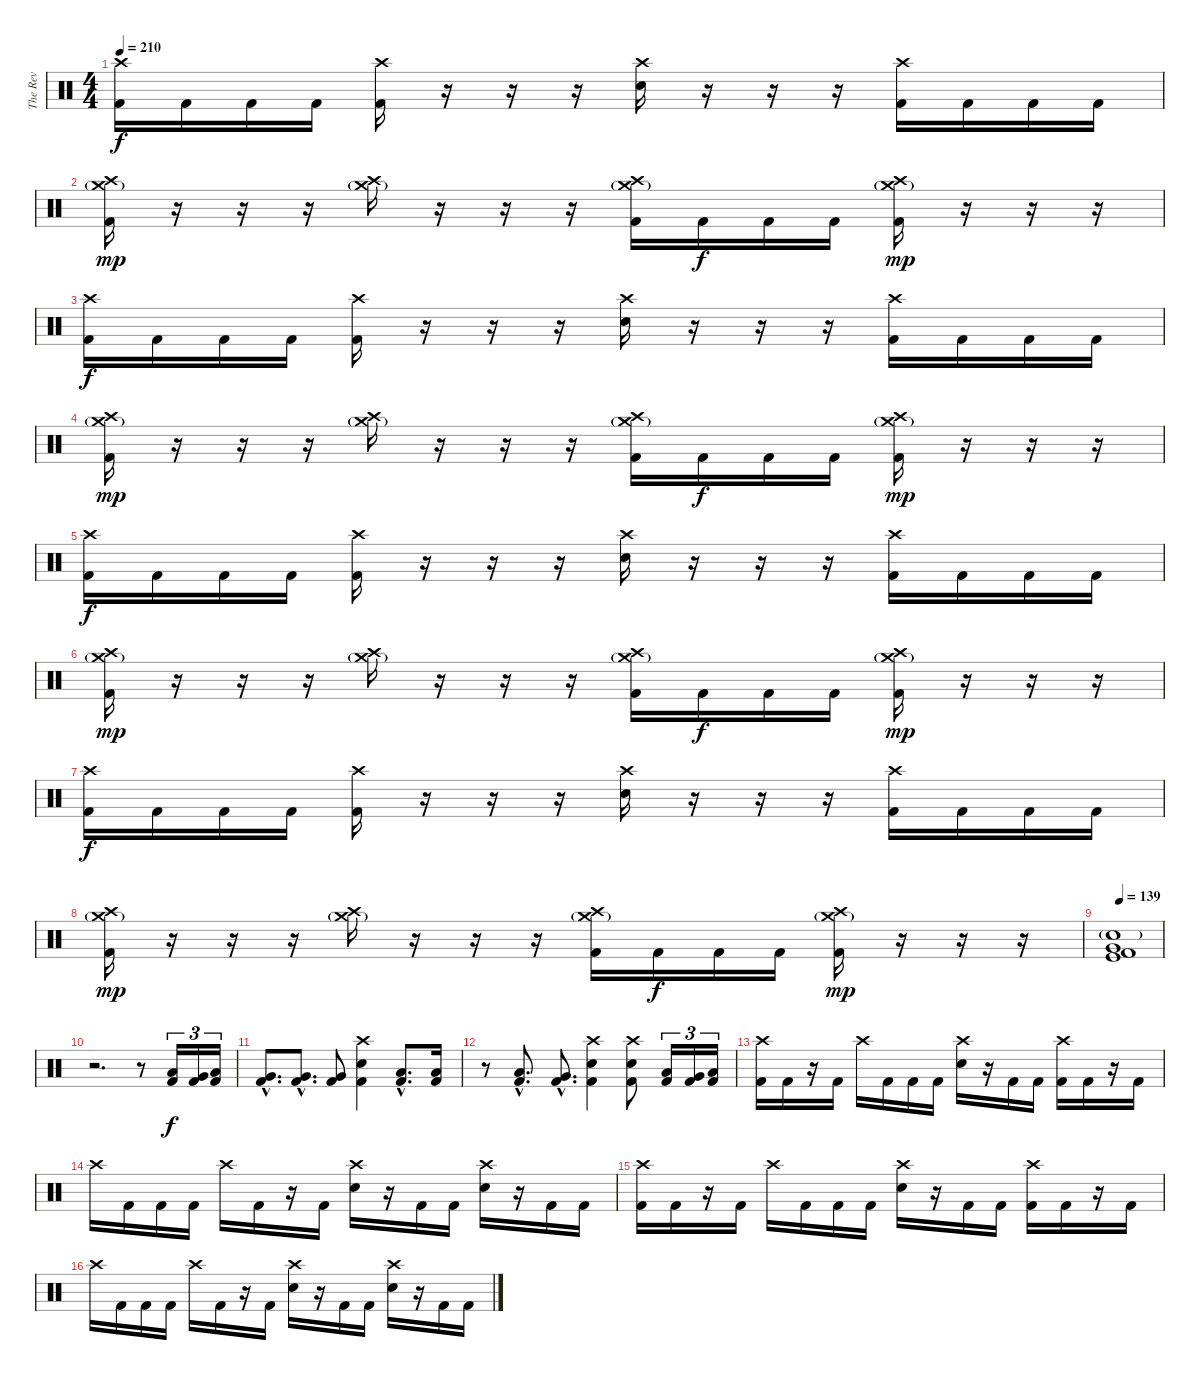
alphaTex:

\track ("The Rev" "The Rev") {instrument percussion}
\staff {score}
\articulation defaults
\ts (4 4)
\tempo 210
\clef neutral
\ks c
("Crash high (hit)" "Kick (hit) 2").16{dy f} "Kick (hit) 2".16 "Kick (hit) 2".16 "Kick (hit) 2".16 ("Crash high (hit)" "Kick (hit) 2").16 r.16 r.16 r.16 ("Crash high (hit)" "Electric Snare (hit)").16 r.16 r.16 r.16 ("Crash high (hit)" "Kick (hit) 2").16 "Kick (hit) 2".16 "Kick (hit) 2".16 "Kick (hit) 2".16 |
("Crash high (hit)" "Crash medium (hit)"{g} "Kick (hit) 2").16{dy mp} r.16 r.16 r.16 ("Crash high (hit)" "Crash medium (hit)"{g}).16 r.16 r.16 r.16 ("Crash high (hit)" "Crash medium (hit)"{g} "Kick (hit) 2").16 "Kick (hit) 2".16{dy f} "Kick (hit) 2".16 "Kick (hit) 2".16 ("Crash high (hit)" "Crash medium (hit)"{g} "Kick (hit) 2").16{dy mp} r.16 r.16 r.16 |
("Crash high (hit)" "Kick (hit) 2").16{dy f} "Kick (hit) 2".16 "Kick (hit) 2".16 "Kick (hit) 2".16 ("Crash high (hit)" "Kick (hit) 2").16 r.16 r.16 r.16 ("Crash high (hit)" "Electric Snare (hit)").16 r.16 r.16 r.16 ("Crash high (hit)" "Kick (hit) 2").16 "Kick (hit) 2".16 "Kick (hit) 2".16 "Kick (hit) 2".16 |
("Crash high (hit)" "Crash medium (hit)"{g} "Kick (hit) 2").16{dy mp} r.16 r.16 r.16 ("Crash high (hit)" "Crash medium (hit)"{g}).16 r.16 r.16 r.16 ("Crash high (hit)" "Crash medium (hit)"{g} "Kick (hit) 2").16 "Kick (hit) 2".16{dy f} "Kick (hit) 2".16 "Kick (hit) 2".16 ("Crash high (hit)" "Crash medium (hit)"{g} "Kick (hit) 2").16{dy mp} r.16 r.16 r.16 |
("Crash high (hit)" "Kick (hit) 2").16{dy f} "Kick (hit) 2".16 "Kick (hit) 2".16 "Kick (hit) 2".16 ("Crash high (hit)" "Kick (hit) 2").16 r.16 r.16 r.16 ("Crash high (hit)" "Electric Snare (hit)").16 r.16 r.16 r.16 ("Crash high (hit)" "Kick (hit) 2").16 "Kick (hit) 2".16 "Kick (hit) 2".16 "Kick (hit) 2".16 |
("Crash high (hit)" "Crash medium (hit)"{g} "Kick (hit) 2").16{dy mp} r.16 r.16 r.16 ("Crash high (hit)" "Crash medium (hit)"{g}).16 r.16 r.16 r.16 ("Crash high (hit)" "Crash medium (hit)"{g} "Kick (hit) 2").16 "Kick (hit) 2".16{dy f} "Kick (hit) 2".16 "Kick (hit) 2".16 ("Crash high (hit)" "Crash medium (hit)"{g} "Kick (hit) 2").16{dy mp} r.16 r.16 r.16 |
("Crash high (hit)" "Kick (hit) 2").16{dy f} "Kick (hit) 2".16 "Kick (hit) 2".16 "Kick (hit) 2".16 ("Crash high (hit)" "Kick (hit) 2").16 r.16 r.16 r.16 ("Crash high (hit)" "Electric Snare (hit)").16 r.16 r.16 r.16 ("Crash high (hit)" "Kick (hit) 2").16 "Kick (hit) 2".16 "Kick (hit) 2".16 "Kick (hit) 2".16 |
("Crash high (hit)" "Crash medium (hit)"{g} "Kick (hit) 2").16{dy mp} r.16 r.16 r.16 ("Crash high (hit)" "Crash medium (hit)"{g}).16 r.16 r.16 r.16 ("Crash high (hit)" "Crash medium (hit)"{g} "Kick (hit) 2").16 "Kick (hit) 2".16{dy f} "Kick (hit) 2".16 "Kick (hit) 2".16 ("Crash high (hit)" "Crash medium (hit)"{g} "Kick (hit) 2").16{dy mp} r.16 r.16 r.16 |
\tempo 139
("Snare (hit) 2"{g} "Very Low Tom (hit)" "Kick (hit)" "Kick (hit) 2").1 |
r.2{d} r.8 ("Low Tom (hit)" "Kick (hit) 2").16{tu (3 2) dy f} ("Very Low Tom (hit)" "Kick (hit) 2").16{tu (3 2)} ("Low Floor Tom (hit)" "Kick (hit) 2").16{tu (3 2)} |
("Very Low Tom (hit)"{hac} "Kick (hit) 2"{hac}).8{d} ("Very Low Tom (hit)"{hac} "Kick (hit) 2"{hac}).8{d} ("Very Low Tom (hit)" "Kick (hit) 2").8 ("Crash high (hit)" "Electric Snare (hit)" "Kick (hit) 2").4 ("Low Tom (hit)"{hac} "Kick (hit) 2"{hac}).8{d} ("Low Tom (hit)" "Kick (hit) 2").16 |
r.8 ("Low Tom (hit)"{hac} "Kick (hit) 2"{hac}).8{d} ("Very Low Tom (hit)"{hac} "Kick (hit) 2"{hac}).8{d} ("Crash high (hit)" "Electric Snare (hit)" "Kick (hit) 2").4 ("Crash high (hit)" "Electric Snare (hit)" "Kick (hit) 2").8 ("Low Tom (hit)" "Kick (hit) 2").16{tu (3 2)} ("Very Low Tom (hit)" "Kick (hit) 2").16{tu (3 2)} ("Low Floor Tom (hit)" "Kick (hit) 2").16{tu (3 2)} |
("Crash high (hit)" "Kick (hit) 2").16 "Kick (hit) 2".16 r.16 "Kick (hit) 2".16 "Crash high (hit)".16 "Kick (hit) 2".16 "Kick (hit) 2".16 "Kick (hit) 2".16 ("Crash high (hit)" "Electric Snare (hit)").16 r.16 "Kick (hit) 2".16 "Kick (hit) 2".16 ("Crash high (hit)" "Kick (hit) 2").16 "Kick (hit) 2".16 r.16 "Kick (hit) 2".16 |
"Crash high (hit)".16 "Kick (hit) 2".16 "Kick (hit) 2".16 "Kick (hit) 2".16 "Crash high (hit)".16 "Kick (hit) 2".16 r.16 "Kick (hit) 2".16 ("Crash high (hit)" "Electric Snare (hit)").16 r.16 "Kick (hit) 2".16 "Kick (hit) 2".16 ("Crash high (hit)" "Electric Snare (hit)").16 r.16 "Kick (hit) 2".16 "Kick (hit) 2".16 |
("Crash high (hit)" "Kick (hit) 2").16 "Kick (hit) 2".16 r.16 "Kick (hit) 2".16 "Crash high (hit)".16 "Kick (hit) 2".16 "Kick (hit) 2".16 "Kick (hit) 2".16 ("Crash high (hit)" "Electric Snare (hit)").16 r.16 "Kick (hit) 2".16 "Kick (hit) 2".16 ("Crash high (hit)" "Kick (hit) 2").16 "Kick (hit) 2".16 r.16 "Kick (hit) 2".16 |
"Crash high (hit)".16 "Kick (hit) 2".16 "Kick (hit) 2".16 "Kick (hit) 2".16 "Crash high (hit)".16 "Kick (hit) 2".16 r.16 "Kick (hit) 2".16 ("Crash high (hit)" "Electric Snare (hit)").16 r.16 "Kick (hit) 2".16 "Kick (hit) 2".16 ("Crash high (hit)" "Electric Snare (hit)").16 r.16 "Kick (hit) 2".16 "Kick (hit) 2".16
